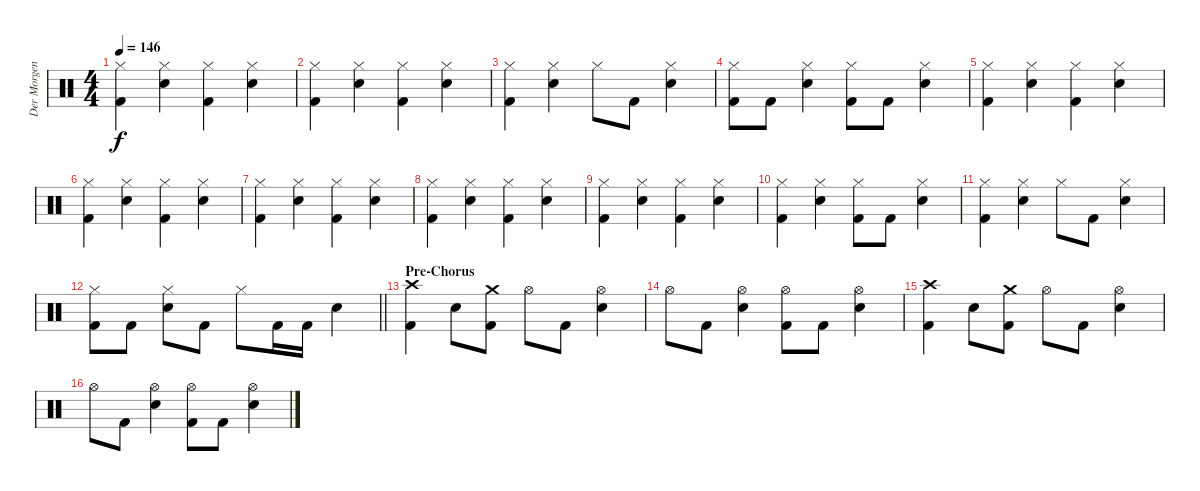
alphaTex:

\track ("Der Morgenstern" "Der Morgen") {instrument percussion}
\staff {score}
\articulation defaults
\ts (4 4)
\tempo 146
\clef neutral
\ks c
("Hi-Hat (closed)" "Kick (hit) 2").4{dy f} ("Hi-Hat (closed)" "Electric Snare (hit)").4 ("Hi-Hat (closed)" "Kick (hit) 2").4 ("Hi-Hat (closed)" "Electric Snare (hit)").4 |
("Hi-Hat (closed)" "Kick (hit) 2").4 ("Hi-Hat (closed)" "Electric Snare (hit)").4 ("Hi-Hat (closed)" "Kick (hit) 2").4 ("Hi-Hat (closed)" "Electric Snare (hit)").4 |
("Hi-Hat (closed)" "Kick (hit) 2").4 ("Hi-Hat (closed)" "Electric Snare (hit)").4 "Hi-Hat (closed)".8 "Kick (hit) 2".8 ("Hi-Hat (closed)" "Electric Snare (hit)").4 |
("Hi-Hat (closed)" "Kick (hit) 2").8 "Kick (hit) 2".8 ("Hi-Hat (closed)" "Electric Snare (hit)").4 ("Hi-Hat (closed)" "Kick (hit) 2").8 "Kick (hit) 2".8 ("Hi-Hat (closed)" "Electric Snare (hit)").4 |
("Hi-Hat (closed)" "Kick (hit) 2").4 ("Hi-Hat (closed)" "Electric Snare (hit)").4 ("Hi-Hat (closed)" "Kick (hit) 2").4 ("Hi-Hat (closed)" "Electric Snare (hit)").4 |
("Hi-Hat (closed)" "Kick (hit) 2").4 ("Hi-Hat (closed)" "Electric Snare (hit)").4 ("Hi-Hat (closed)" "Kick (hit) 2").4 ("Hi-Hat (closed)" "Electric Snare (hit)").4 |
("Hi-Hat (closed)" "Kick (hit) 2").4 ("Hi-Hat (closed)" "Electric Snare (hit)").4 ("Hi-Hat (closed)" "Kick (hit) 2").4 ("Hi-Hat (closed)" "Electric Snare (hit)").4 |
("Hi-Hat (closed)" "Kick (hit) 2").4 ("Hi-Hat (closed)" "Electric Snare (hit)").4 ("Hi-Hat (closed)" "Kick (hit) 2").4 ("Hi-Hat (closed)" "Electric Snare (hit)").4 |
("Hi-Hat (closed)" "Kick (hit) 2").4 ("Hi-Hat (closed)" "Electric Snare (hit)").4 ("Hi-Hat (closed)" "Kick (hit) 2").4 ("Hi-Hat (closed)" "Electric Snare (hit)").4 |
("Hi-Hat (closed)" "Kick (hit) 2").4 ("Hi-Hat (closed)" "Electric Snare (hit)").4 ("Hi-Hat (closed)" "Kick (hit) 2").8 "Kick (hit) 2".8 ("Hi-Hat (closed)" "Electric Snare (hit)").4 |
("Hi-Hat (closed)" "Kick (hit) 2").4 ("Hi-Hat (closed)" "Electric Snare (hit)").4 "Hi-Hat (closed)".8 "Kick (hit) 2".8 ("Hi-Hat (closed)" "Electric Snare (hit)").4 |
\barLineRight lightlight
("Hi-Hat (closed)" "Kick (hit) 2").8 "Kick (hit) 2".8 ("Hi-Hat (closed)" "Electric Snare (hit)").8 "Kick (hit) 2".8 "Hi-Hat (closed)".8 "Kick (hit) 2".16 "Kick (hit) 2".16 "Electric Snare (hit)".4 |
\section ("" "Pre-Chorus")
("Crash high (hit)" "Kick (hit) 2").4 "Electric Snare (hit)".8 ("Crash medium (hit)" "Kick (hit) 2").8 "Hi-Hat (open)".8 "Kick (hit) 2".8 ("Hi-Hat (open)" "Electric Snare (hit)").4 |
"Hi-Hat (open)".8 "Kick (hit) 2".8 ("Hi-Hat (open)" "Electric Snare (hit)").4 ("Hi-Hat (open)" "Kick (hit) 2").8 "Kick (hit) 2".8 ("Hi-Hat (open)" "Electric Snare (hit)").4 |
("Crash high (hit)" "Kick (hit) 2").4 "Electric Snare (hit)".8 ("Crash medium (hit)" "Kick (hit) 2").8 "Hi-Hat (open)".8 "Kick (hit) 2".8 ("Hi-Hat (open)" "Electric Snare (hit)").4 |
"Hi-Hat (open)".8 "Kick (hit) 2".8 ("Hi-Hat (open)" "Electric Snare (hit)").4 ("Hi-Hat (open)" "Kick (hit) 2").8 "Kick (hit) 2".8 ("Hi-Hat (open)" "Electric Snare (hit)").4
